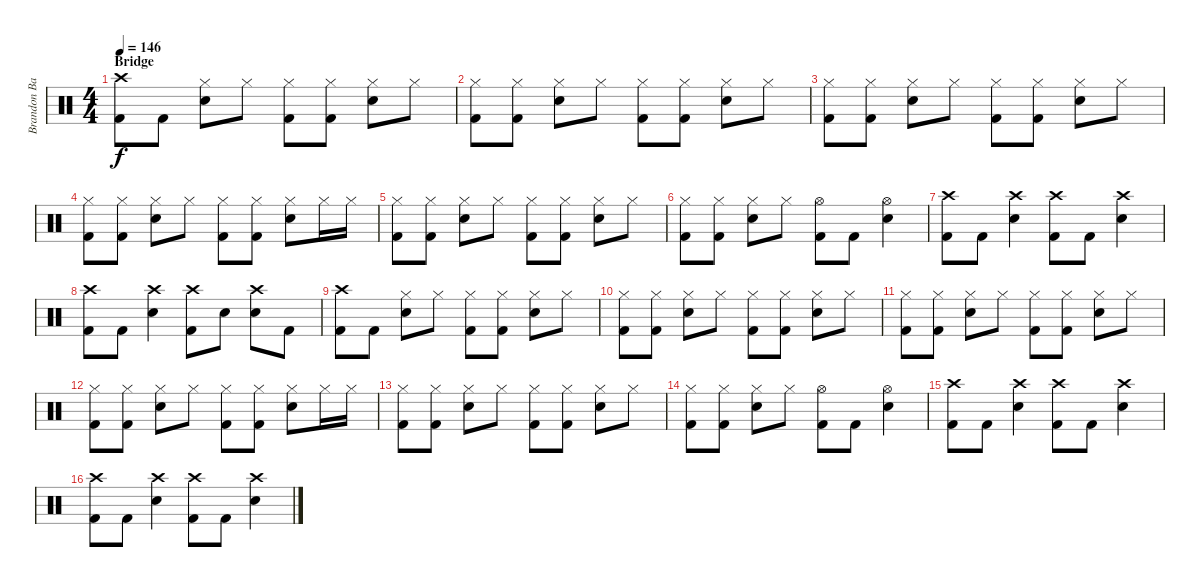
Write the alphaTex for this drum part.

\track ("Brandon Barnes - Drums" "Brandon Ba") {instrument percussion}
\staff {score}
\articulation defaults
\ts (4 4)
\section ("" "Bridge")
\tempo 146
\clef neutral
\ks c
("Crash high (hit)" "Kick (hit) 2").8{dy f} "Kick (hit) 2".8 ("Snare (hit) 2" "Hi-Hat (closed)").8 "Hi-Hat (closed)".8 ("Kick (hit) 2" "Hi-Hat (closed)").8 ("Kick (hit) 2" "Hi-Hat (closed)").8 ("Snare (hit) 2" "Hi-Hat (closed)").8 "Hi-Hat (closed)".8 |
("Kick (hit) 2" "Hi-Hat (closed)").8 ("Kick (hit) 2" "Hi-Hat (closed)").8 ("Snare (hit) 2" "Hi-Hat (closed)").8 "Hi-Hat (closed)".8 ("Kick (hit) 2" "Hi-Hat (closed)").8 ("Kick (hit) 2" "Hi-Hat (closed)").8 ("Snare (hit) 2" "Hi-Hat (closed)").8 "Hi-Hat (closed)".8 |
("Kick (hit) 2" "Hi-Hat (closed)").8 ("Kick (hit) 2" "Hi-Hat (closed)").8 ("Snare (hit) 2" "Hi-Hat (closed)").8 "Hi-Hat (closed)".8 ("Kick (hit) 2" "Hi-Hat (closed)").8 ("Kick (hit) 2" "Hi-Hat (closed)").8 ("Snare (hit) 2" "Hi-Hat (closed)").8 "Hi-Hat (closed)".8 |
("Kick (hit) 2" "Hi-Hat (closed)").8 ("Kick (hit) 2" "Hi-Hat (closed)").8 ("Snare (hit) 2" "Hi-Hat (closed)").8 "Hi-Hat (closed)".8 ("Kick (hit) 2" "Hi-Hat (closed)").8 ("Kick (hit) 2" "Hi-Hat (closed)").8 ("Snare (hit) 2" "Hi-Hat (closed)").8 "Hi-Hat (closed)".16 "Hi-Hat (closed)".16 |
("Kick (hit) 2" "Hi-Hat (closed)").8 ("Kick (hit) 2" "Hi-Hat (closed)").8 ("Snare (hit) 2" "Hi-Hat (closed)").8 "Hi-Hat (closed)".8 ("Kick (hit) 2" "Hi-Hat (closed)").8 ("Kick (hit) 2" "Hi-Hat (closed)").8 ("Snare (hit) 2" "Hi-Hat (closed)").8 "Hi-Hat (closed)".8 |
("Kick (hit) 2" "Hi-Hat (closed)").8 ("Kick (hit) 2" "Hi-Hat (closed)").8 ("Snare (hit) 2" "Hi-Hat (closed)").8 "Hi-Hat (closed)".8 ("Kick (hit) 2" "Hi-Hat (open)").8 "Kick (hit) 2".8 ("Snare (hit) 2" "Hi-Hat (open)").4 |
("Crash high (hit)" "Kick (hit) 2").8 "Kick (hit) 2".8 ("Snare (hit) 2" "Crash high (hit)").4 ("Crash high (hit)" "Kick (hit) 2").8 "Kick (hit) 2".8 ("Snare (hit) 2" "Crash high (hit)").4 |
("Crash high (hit)" "Kick (hit) 2").8 "Kick (hit) 2".8 ("Snare (hit) 2" "Crash high (hit)").4 ("Crash high (hit)" "Kick (hit) 2").8 "Snare (hit) 2".8 ("Snare (hit) 2" "Crash high (hit)").8 "Kick (hit) 2".8 |
("Crash high (hit)" "Kick (hit) 2").8 "Kick (hit) 2".8 ("Snare (hit) 2" "Hi-Hat (closed)").8 "Hi-Hat (closed)".8 ("Kick (hit) 2" "Hi-Hat (closed)").8 ("Kick (hit) 2" "Hi-Hat (closed)").8 ("Snare (hit) 2" "Hi-Hat (closed)").8 "Hi-Hat (closed)".8 |
("Kick (hit) 2" "Hi-Hat (closed)").8 ("Kick (hit) 2" "Hi-Hat (closed)").8 ("Snare (hit) 2" "Hi-Hat (closed)").8 "Hi-Hat (closed)".8 ("Kick (hit) 2" "Hi-Hat (closed)").8 ("Kick (hit) 2" "Hi-Hat (closed)").8 ("Snare (hit) 2" "Hi-Hat (closed)").8 "Hi-Hat (closed)".8 |
("Kick (hit) 2" "Hi-Hat (closed)").8 ("Kick (hit) 2" "Hi-Hat (closed)").8 ("Snare (hit) 2" "Hi-Hat (closed)").8 "Hi-Hat (closed)".8 ("Kick (hit) 2" "Hi-Hat (closed)").8 ("Kick (hit) 2" "Hi-Hat (closed)").8 ("Snare (hit) 2" "Hi-Hat (closed)").8 "Hi-Hat (closed)".8 |
("Kick (hit) 2" "Hi-Hat (closed)").8 ("Kick (hit) 2" "Hi-Hat (closed)").8 ("Snare (hit) 2" "Hi-Hat (closed)").8 "Hi-Hat (closed)".8 ("Kick (hit) 2" "Hi-Hat (closed)").8 ("Kick (hit) 2" "Hi-Hat (closed)").8 ("Snare (hit) 2" "Hi-Hat (closed)").8 "Hi-Hat (closed)".16 "Hi-Hat (closed)".16 |
("Kick (hit) 2" "Hi-Hat (closed)").8 ("Kick (hit) 2" "Hi-Hat (closed)").8 ("Snare (hit) 2" "Hi-Hat (closed)").8 "Hi-Hat (closed)".8 ("Kick (hit) 2" "Hi-Hat (closed)").8 ("Kick (hit) 2" "Hi-Hat (closed)").8 ("Snare (hit) 2" "Hi-Hat (closed)").8 "Hi-Hat (closed)".8 |
("Kick (hit) 2" "Hi-Hat (closed)").8 ("Kick (hit) 2" "Hi-Hat (closed)").8 ("Snare (hit) 2" "Hi-Hat (closed)").8 "Hi-Hat (closed)".8 ("Kick (hit) 2" "Hi-Hat (open)").8 "Kick (hit) 2".8 ("Snare (hit) 2" "Hi-Hat (open)").4 |
("Crash high (hit)" "Kick (hit) 2").8 "Kick (hit) 2".8 ("Snare (hit) 2" "Crash high (hit)").4 ("Crash high (hit)" "Kick (hit) 2").8 "Kick (hit) 2".8 ("Snare (hit) 2" "Crash high (hit)").4 |
("Crash high (hit)" "Kick (hit) 2").8 "Kick (hit) 2".8 ("Snare (hit) 2" "Crash high (hit)").4 ("Crash high (hit)" "Kick (hit) 2").8 "Kick (hit) 2".8 ("Snare (hit) 2" "Crash high (hit)").4
